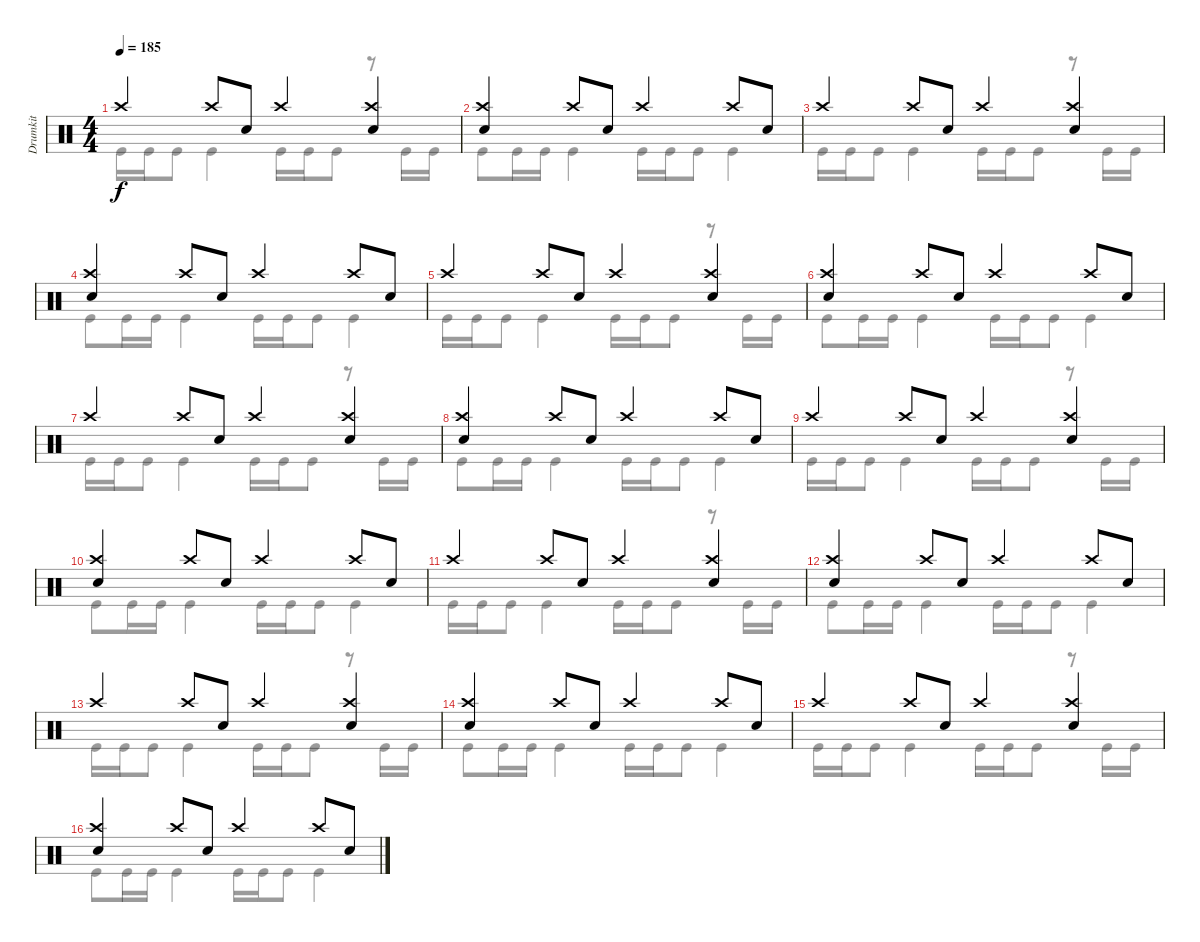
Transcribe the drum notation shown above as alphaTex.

\track ("Drumkit" "Drumkit") {instrument percussion}
\staff {score}
\articulation defaults
\voice
\ts (4 4)
\tempo 185
\clef neutral
\ks c "Crash high (hit)".4{dy f} "Crash high (hit)".8 "Snare (hit) 2".8 "Crash high (hit)".4
("Crash high (hit)" "Snare (hit) 2").4 |
("Crash high (hit)" "Snare (hit) 2").4 "Crash high (hit)".8 "Snare (hit) 2".8 "Crash high (hit)".4 "Crash high (hit)".8 "Snare (hit) 2".8 |
"Crash high (hit)".4 "Crash high (hit)".8 "Snare (hit) 2".8 "Crash high (hit)".4 ("Crash high (hit)" "Snare (hit) 2").4 |
("Crash high (hit)" "Snare (hit) 2").4 "Crash high (hit)".8 "Snare (hit) 2".8 "Crash high (hit)".4 "Crash high (hit)".8 "Snare (hit) 2".8 |
"Crash high (hit)".4 "Crash high (hit)".8 "Snare (hit) 2".8 "Crash high (hit)".4 ("Crash high (hit)" "Snare (hit) 2").4 |
("Crash high (hit)" "Snare (hit) 2").4 "Crash high (hit)".8 "Snare (hit) 2".8 "Crash high (hit)".4 "Crash high (hit)".8 "Snare (hit) 2".8 |
"Crash high (hit)".4 "Crash high (hit)".8 "Snare (hit) 2".8 "Crash high (hit)".4 ("Crash high (hit)" "Snare (hit) 2").4 |
("Crash high (hit)" "Snare (hit) 2").4 "Crash high (hit)".8 "Snare (hit) 2".8 "Crash high (hit)".4 "Crash high (hit)".8 "Snare (hit) 2".8 |
"Crash high (hit)".4 "Crash high (hit)".8 "Snare (hit) 2".8 "Crash high (hit)".4 ("Crash high (hit)" "Snare (hit) 2").4 |
("Crash high (hit)" "Snare (hit) 2").4 "Crash high (hit)".8 "Snare (hit) 2".8 "Crash high (hit)".4 "Crash high (hit)".8 "Snare (hit) 2".8 |
"Crash high (hit)".4 "Crash high (hit)".8 "Snare (hit) 2".8 "Crash high (hit)".4 ("Crash high (hit)" "Snare (hit) 2").4 |
("Crash high (hit)" "Snare (hit) 2").4 "Crash high (hit)".8 "Snare (hit) 2".8 "Crash high (hit)".4 "Crash high (hit)".8 "Snare (hit) 2".8 |
"Crash high (hit)".4 "Crash high (hit)".8 "Snare (hit) 2".8 "Crash high (hit)".4 ("Crash high (hit)" "Snare (hit) 2").4 |
("Crash high (hit)" "Snare (hit) 2").4 "Crash high (hit)".8 "Snare (hit) 2".8 "Crash high (hit)".4 "Crash high (hit)".8 "Snare (hit) 2".8 |
"Crash high (hit)".4 "Crash high (hit)".8 "Snare (hit) 2".8 "Crash high (hit)".4 ("Crash high (hit)" "Snare (hit) 2").4 |
("Crash high (hit)" "Snare (hit) 2").4 "Crash high (hit)".8 "Snare (hit) 2".8 "Crash high (hit)".4 "Crash high (hit)".8 "Snare (hit) 2".8
\voice
\clef neutral
\ottava regular
\simile none
\ks c "Kick (hit)".16{dy f} "Kick (hit)".16 "Kick (hit)".8 "Kick (hit)".4 "Kick (hit)".16 "Kick (hit)".16 "Kick (hit)".8
r.8 "Kick (hit)".16 "Kick (hit)".16 |
"Kick (hit)".8 "Kick (hit)".16 "Kick (hit)".16 "Kick (hit)".4 "Kick (hit)".16 "Kick (hit)".16 "Kick (hit)".8 "Kick (hit)".4 |
"Kick (hit)".16 "Kick (hit)".16 "Kick (hit)".8 "Kick (hit)".4 "Kick (hit)".16 "Kick (hit)".16 "Kick (hit)".8 r.8 "Kick (hit)".16 "Kick (hit)".16 |
"Kick (hit)".8 "Kick (hit)".16 "Kick (hit)".16 "Kick (hit)".4 "Kick (hit)".16 "Kick (hit)".16 "Kick (hit)".8 "Kick (hit)".4 |
"Kick (hit)".16 "Kick (hit)".16 "Kick (hit)".8 "Kick (hit)".4 "Kick (hit)".16 "Kick (hit)".16 "Kick (hit)".8 r.8 "Kick (hit)".16 "Kick (hit)".16 |
"Kick (hit)".8 "Kick (hit)".16 "Kick (hit)".16 "Kick (hit)".4 "Kick (hit)".16 "Kick (hit)".16 "Kick (hit)".8 "Kick (hit)".4 |
"Kick (hit)".16 "Kick (hit)".16 "Kick (hit)".8 "Kick (hit)".4 "Kick (hit)".16 "Kick (hit)".16 "Kick (hit)".8 r.8 "Kick (hit)".16 "Kick (hit)".16 |
"Kick (hit)".8 "Kick (hit)".16 "Kick (hit)".16 "Kick (hit)".4 "Kick (hit)".16 "Kick (hit)".16 "Kick (hit)".8 "Kick (hit)".4 |
"Kick (hit)".16 "Kick (hit)".16 "Kick (hit)".8 "Kick (hit)".4 "Kick (hit)".16 "Kick (hit)".16 "Kick (hit)".8 r.8 "Kick (hit)".16 "Kick (hit)".16 |
"Kick (hit)".8 "Kick (hit)".16 "Kick (hit)".16 "Kick (hit)".4 "Kick (hit)".16 "Kick (hit)".16 "Kick (hit)".8 "Kick (hit)".4 |
"Kick (hit)".16 "Kick (hit)".16 "Kick (hit)".8 "Kick (hit)".4 "Kick (hit)".16 "Kick (hit)".16 "Kick (hit)".8 r.8 "Kick (hit)".16 "Kick (hit)".16 |
"Kick (hit)".8 "Kick (hit)".16 "Kick (hit)".16 "Kick (hit)".4 "Kick (hit)".16 "Kick (hit)".16 "Kick (hit)".8 "Kick (hit)".4 |
"Kick (hit)".16 "Kick (hit)".16 "Kick (hit)".8 "Kick (hit)".4 "Kick (hit)".16 "Kick (hit)".16 "Kick (hit)".8 r.8 "Kick (hit)".16 "Kick (hit)".16 |
"Kick (hit)".8 "Kick (hit)".16 "Kick (hit)".16 "Kick (hit)".4 "Kick (hit)".16 "Kick (hit)".16 "Kick (hit)".8 "Kick (hit)".4 |
"Kick (hit)".16 "Kick (hit)".16 "Kick (hit)".8 "Kick (hit)".4 "Kick (hit)".16 "Kick (hit)".16 "Kick (hit)".8 r.8 "Kick (hit)".16 "Kick (hit)".16 |
"Kick (hit)".8 "Kick (hit)".16 "Kick (hit)".16 "Kick (hit)".4 "Kick (hit)".16 "Kick (hit)".16 "Kick (hit)".8 "Kick (hit)".4
